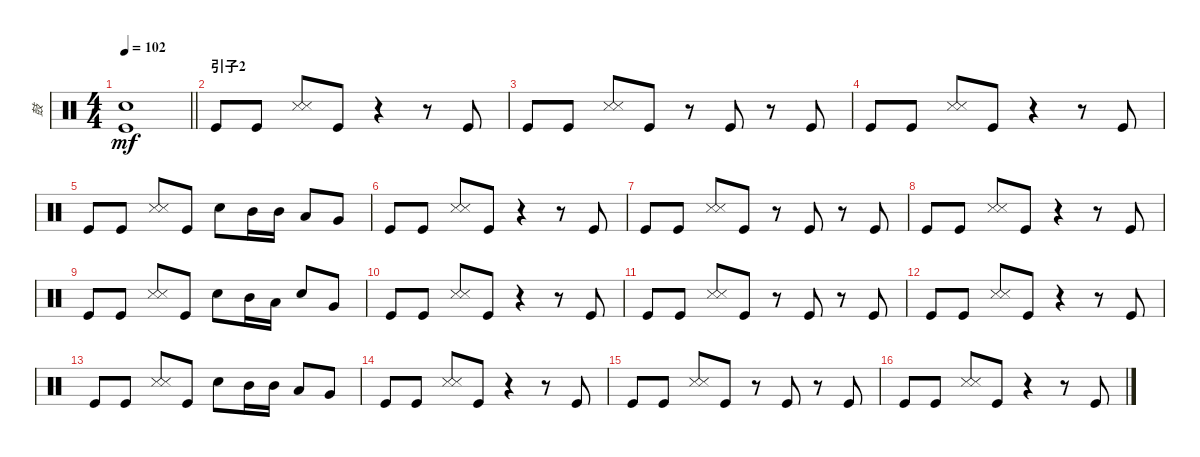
\track ("鼓" "鼓") {instrument percussion}
\staff {score}
\articulation defaults
\ts (4 4)
\tempo 102
\clef neutral
\barLineRight lightlight
\ks c
("Electric Snare (hit)" "Kick (hit)").1{dy mf} |
\section ("" "引子2")
"Kick (hit)".8 "Kick (hit)".8 ("Snare (side stick) 3" "Snare (side stick) 3").8 "Kick (hit)".8 r.4 r.8 "Kick (hit)".8 |
"Kick (hit)".8 "Kick (hit)".8 ("Snare (side stick) 3" "Snare (side stick) 3").8 "Kick (hit)".8 r.8 "Kick (hit)".8 r.8 "Kick (hit)".8 |
"Kick (hit)".8 "Kick (hit)".8 ("Snare (side stick) 3" "Snare (side stick) 3").8 "Kick (hit)".8 r.4 r.8 "Kick (hit)".8 |
"Kick (hit)".8 "Kick (hit)".8 ("Snare (side stick) 3" "Snare (side stick) 3").8 "Kick (hit)".8 "Electric Snare (hit)".8 "Mid Tom (hit)".16 "Mid Tom (hit)".16 "Low Tom (hit)".8 "Very Low Tom (hit)".8 |
"Kick (hit)".8 "Kick (hit)".8 ("Snare (side stick) 3" "Snare (side stick) 3").8 "Kick (hit)".8 r.4 r.8 "Kick (hit)".8 |
"Kick (hit)".8 "Kick (hit)".8 ("Snare (side stick) 3" "Snare (side stick) 3").8 "Kick (hit)".8 r.8 "Kick (hit)".8 r.8 "Kick (hit)".8 |
"Kick (hit)".8 "Kick (hit)".8 ("Snare (side stick) 3" "Snare (side stick) 3").8 "Kick (hit)".8 r.4 r.8 "Kick (hit)".8 |
"Kick (hit)".8 "Kick (hit)".8 ("Snare (side stick) 3" "Snare (side stick) 3").8 "Kick (hit)".8 "Electric Snare (hit)".8 "Mid Tom (hit)".16 "Low Tom (hit)".16 "Electric Snare (hit)".8 "Very Low Tom (hit)".8 |
"Kick (hit)".8 "Kick (hit)".8 ("Snare (side stick) 3" "Snare (side stick) 3").8 "Kick (hit)".8 r.4 r.8 "Kick (hit)".8 |
"Kick (hit)".8 "Kick (hit)".8 ("Snare (side stick) 3" "Snare (side stick) 3").8 "Kick (hit)".8 r.8 "Kick (hit)".8 r.8 "Kick (hit)".8 |
"Kick (hit)".8 "Kick (hit)".8 ("Snare (side stick) 3" "Snare (side stick) 3").8 "Kick (hit)".8 r.4 r.8 "Kick (hit)".8 |
"Kick (hit)".8 "Kick (hit)".8 ("Snare (side stick) 3" "Snare (side stick) 3").8 "Kick (hit)".8 "Electric Snare (hit)".8 "Mid Tom (hit)".16 "Mid Tom (hit)".16 "Low Tom (hit)".8 "Very Low Tom (hit)".8 |
"Kick (hit)".8 "Kick (hit)".8 ("Snare (side stick) 3" "Snare (side stick) 3").8 "Kick (hit)".8 r.4 r.8 "Kick (hit)".8 |
"Kick (hit)".8 "Kick (hit)".8 ("Snare (side stick) 3" "Snare (side stick) 3").8 "Kick (hit)".8 r.8 "Kick (hit)".8 r.8 "Kick (hit)".8 |
"Kick (hit)".8 "Kick (hit)".8 ("Snare (side stick) 3" "Snare (side stick) 3").8 "Kick (hit)".8 r.4 r.8 "Kick (hit)".8
